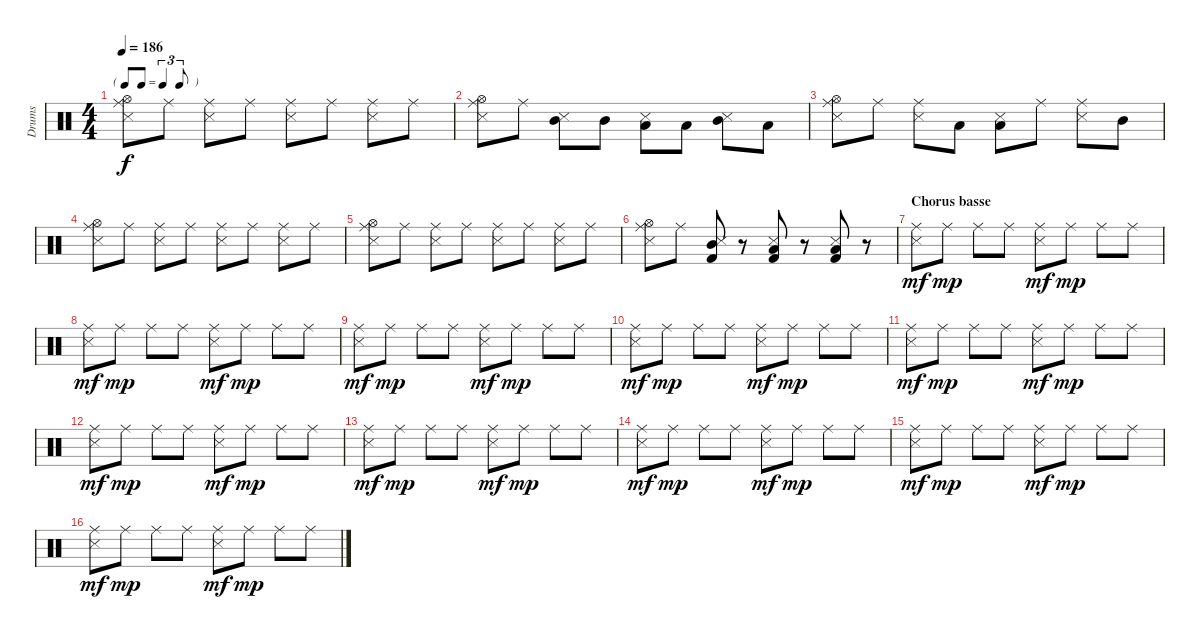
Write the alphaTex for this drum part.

\track ("Drums" "Drums") {instrument percussion}
\staff {score}
\articulation defaults
\ts (4 4)
\tf triplet8th
\tempo 186
\clef neutral
\ks c
("Hi-Hat (open)" "Ride (middle)" "Snare (side stick) 3").8{dy f} "Ride (middle)".8 ("Ride (middle)" "Snare (side stick) 3").8 "Ride (middle)".8 ("Ride (middle)" "Snare (side stick) 3").8 "Ride (middle)".8 ("Ride (middle)" "Snare (side stick) 3").8 "Ride (middle)".8 |
("Hi-Hat (open)" "Ride (middle)" "Snare (side stick) 3").8 "Ride (middle)".8 ("Mid Tom (hit)" "Snare (side stick) 3").8 "Mid Tom (hit)".8 ("Low Tom (hit)" "Snare (side stick) 3").8 "Low Tom (hit)".8 ("Mid Tom (hit)" "Snare (side stick) 3").8 "Low Tom (hit)".8 |
("Hi-Hat (open)" "Ride (middle)" "Snare (side stick) 3").8 "Ride (middle)".8 ("Ride (middle)" "Snare (side stick) 3").8 "Low Tom (hit)".8 ("Low Tom (hit)" "Snare (side stick) 3").8 "Ride (middle)".8 ("Ride (middle)" "Snare (side stick) 3").8 "Mid Tom (hit)".8 |
("Hi-Hat (open)" "Ride (middle)" "Snare (side stick) 3").8 "Ride (middle)".8 ("Ride (middle)" "Snare (side stick) 3").8 "Ride (middle)".8 ("Ride (middle)" "Snare (side stick) 3").8 "Ride (middle)".8 ("Ride (middle)" "Snare (side stick) 3").8 "Ride (middle)".8 |
("Hi-Hat (open)" "Ride (middle)" "Snare (side stick) 3").8 "Ride (middle)".8 ("Ride (middle)" "Snare (side stick) 3").8 "Ride (middle)".8 ("Ride (middle)" "Snare (side stick) 3").8 "Ride (middle)".8 ("Ride (middle)" "Snare (side stick) 3").8 "Ride (middle)".8 |
("Hi-Hat (open)" "Ride (middle)" "Snare (side stick) 3").8 "Ride (middle)".8 ("Mid Tom (hit)" "Snare (side stick) 3" "Kick (hit) 2").8 r.8 ("Low Tom (hit)" "Snare (side stick) 3" "Kick (hit) 2").8 r.8 ("Low Tom (hit)" "Snare (side stick) 3" "Kick (hit) 2").8 r.8 |
\section ("" "Chorus basse")
("Ride (middle)" "Snare (side stick) 3").8{dy mf} "Ride (middle)".8{dy mp} "Ride (middle)".8 "Ride (middle)".8 ("Ride (middle)" "Snare (side stick) 3").8{dy mf} "Ride (middle)".8{dy mp} "Ride (middle)".8 "Ride (middle)".8 |
("Ride (middle)" "Snare (side stick) 3").8{dy mf} "Ride (middle)".8{dy mp} "Ride (middle)".8 "Ride (middle)".8 ("Ride (middle)" "Snare (side stick) 3").8{dy mf} "Ride (middle)".8{dy mp} "Ride (middle)".8 "Ride (middle)".8 |
("Ride (middle)" "Snare (side stick) 3").8{dy mf} "Ride (middle)".8{dy mp} "Ride (middle)".8 "Ride (middle)".8 ("Ride (middle)" "Snare (side stick) 3").8{dy mf} "Ride (middle)".8{dy mp} "Ride (middle)".8 "Ride (middle)".8 |
("Ride (middle)" "Snare (side stick) 3").8{dy mf} "Ride (middle)".8{dy mp} "Ride (middle)".8 "Ride (middle)".8 ("Ride (middle)" "Snare (side stick) 3").8{dy mf} "Ride (middle)".8{dy mp} "Ride (middle)".8 "Ride (middle)".8 |
("Ride (middle)" "Snare (side stick) 3").8{dy mf} "Ride (middle)".8{dy mp} "Ride (middle)".8 "Ride (middle)".8 ("Ride (middle)" "Snare (side stick) 3").8{dy mf} "Ride (middle)".8{dy mp} "Ride (middle)".8 "Ride (middle)".8 |
("Ride (middle)" "Snare (side stick) 3").8{dy mf} "Ride (middle)".8{dy mp} "Ride (middle)".8 "Ride (middle)".8 ("Ride (middle)" "Snare (side stick) 3").8{dy mf} "Ride (middle)".8{dy mp} "Ride (middle)".8 "Ride (middle)".8 |
("Ride (middle)" "Snare (side stick) 3").8{dy mf} "Ride (middle)".8{dy mp} "Ride (middle)".8 "Ride (middle)".8 ("Ride (middle)" "Snare (side stick) 3").8{dy mf} "Ride (middle)".8{dy mp} "Ride (middle)".8 "Ride (middle)".8 |
("Ride (middle)" "Snare (side stick) 3").8{dy mf} "Ride (middle)".8{dy mp} "Ride (middle)".8 "Ride (middle)".8 ("Ride (middle)" "Snare (side stick) 3").8{dy mf} "Ride (middle)".8{dy mp} "Ride (middle)".8 "Ride (middle)".8 |
("Ride (middle)" "Snare (side stick) 3").8{dy mf} "Ride (middle)".8{dy mp} "Ride (middle)".8 "Ride (middle)".8 ("Ride (middle)" "Snare (side stick) 3").8{dy mf} "Ride (middle)".8{dy mp} "Ride (middle)".8 "Ride (middle)".8 |
("Ride (middle)" "Snare (side stick) 3").8{dy mf} "Ride (middle)".8{dy mp} "Ride (middle)".8 "Ride (middle)".8 ("Ride (middle)" "Snare (side stick) 3").8{dy mf} "Ride (middle)".8{dy mp} "Ride (middle)".8 "Ride (middle)".8
